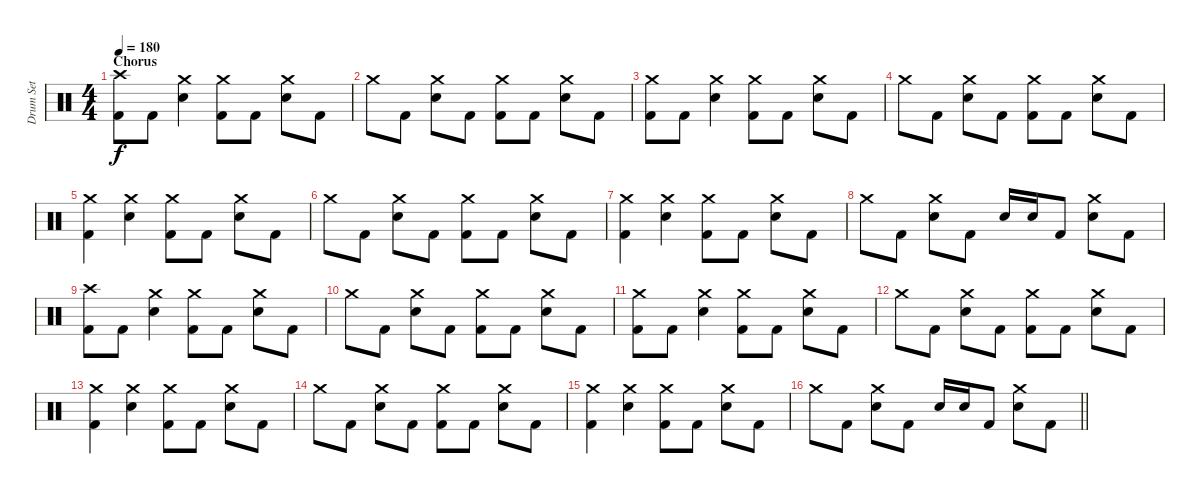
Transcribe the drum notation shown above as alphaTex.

\track ("Drum Set" "Drum Set") {instrument percussion}
\staff {score}
\articulation defaults
\ts (4 4)
\section ("" "Chorus")
\tempo 180
\clef neutral
\ks c
("Crash high (hit)" "Kick (hit) 2").8{dy f} "Kick (hit) 2".8 ("Crash medium (hit)" "Electric Snare (hit)").4 ("Crash medium (hit)" "Kick (hit) 2").8 "Kick (hit) 2".8 ("Crash medium (hit)" "Electric Snare (hit)").8 "Kick (hit) 2".8 |
"Crash medium (hit)".8 "Kick (hit) 2".8 ("Crash medium (hit)" "Electric Snare (hit)").8 "Kick (hit) 2".8 ("Crash medium (hit)" "Kick (hit) 2").8 "Kick (hit) 2".8 ("Crash medium (hit)" "Electric Snare (hit)").8 "Kick (hit) 2".8 |
("Crash medium (hit)" "Kick (hit) 2").8 "Kick (hit) 2".8 ("Crash medium (hit)" "Electric Snare (hit)").4 ("Crash medium (hit)" "Kick (hit) 2").8 "Kick (hit) 2".8 ("Crash medium (hit)" "Electric Snare (hit)").8 "Kick (hit) 2".8 |
"Crash medium (hit)".8 "Kick (hit) 2".8 ("Crash medium (hit)" "Electric Snare (hit)").8 "Kick (hit) 2".8 ("Crash medium (hit)" "Kick (hit) 2").8 "Kick (hit) 2".8 ("Crash medium (hit)" "Electric Snare (hit)").8 "Kick (hit) 2".8 |
("Crash medium (hit)" "Kick (hit) 2").4 ("Crash medium (hit)" "Electric Snare (hit)").4 ("Crash medium (hit)" "Kick (hit) 2").8 "Kick (hit) 2".8 ("Crash medium (hit)" "Electric Snare (hit)").8 "Kick (hit) 2".8 |
"Crash medium (hit)".8 "Kick (hit) 2".8 ("Crash medium (hit)" "Electric Snare (hit)").8 "Kick (hit) 2".8 ("Crash medium (hit)" "Kick (hit) 2").8 "Kick (hit) 2".8 ("Crash medium (hit)" "Electric Snare (hit)").8 "Kick (hit) 2".8 |
("Crash medium (hit)" "Kick (hit) 2").4 ("Crash medium (hit)" "Electric Snare (hit)").4 ("Crash medium (hit)" "Kick (hit) 2").8 "Kick (hit) 2".8 ("Crash medium (hit)" "Electric Snare (hit)").8 "Kick (hit) 2".8 |
"Crash medium (hit)".8 "Kick (hit) 2".8 ("Crash medium (hit)" "Electric Snare (hit)").8 "Kick (hit) 2".8 "Electric Snare (hit)".16 "Electric Snare (hit)".16 "Kick (hit) 2".8 ("Crash medium (hit)" "Electric Snare (hit)").8 "Kick (hit) 2".8 |
("Crash high (hit)" "Kick (hit) 2").8 "Kick (hit) 2".8 ("Crash medium (hit)" "Electric Snare (hit)").4 ("Crash medium (hit)" "Kick (hit) 2").8 "Kick (hit) 2".8 ("Crash medium (hit)" "Electric Snare (hit)").8 "Kick (hit) 2".8 |
"Crash medium (hit)".8 "Kick (hit) 2".8 ("Crash medium (hit)" "Electric Snare (hit)").8 "Kick (hit) 2".8 ("Crash medium (hit)" "Kick (hit) 2").8 "Kick (hit) 2".8 ("Crash medium (hit)" "Electric Snare (hit)").8 "Kick (hit) 2".8 |
("Crash medium (hit)" "Kick (hit) 2").8 "Kick (hit) 2".8 ("Crash medium (hit)" "Electric Snare (hit)").4 ("Crash medium (hit)" "Kick (hit) 2").8 "Kick (hit) 2".8 ("Crash medium (hit)" "Electric Snare (hit)").8 "Kick (hit) 2".8 |
"Crash medium (hit)".8 "Kick (hit) 2".8 ("Crash medium (hit)" "Electric Snare (hit)").8 "Kick (hit) 2".8 ("Crash medium (hit)" "Kick (hit) 2").8 "Kick (hit) 2".8 ("Crash medium (hit)" "Electric Snare (hit)").8 "Kick (hit) 2".8 |
("Crash medium (hit)" "Kick (hit) 2").4 ("Crash medium (hit)" "Electric Snare (hit)").4 ("Crash medium (hit)" "Kick (hit) 2").8 "Kick (hit) 2".8 ("Crash medium (hit)" "Electric Snare (hit)").8 "Kick (hit) 2".8 |
"Crash medium (hit)".8 "Kick (hit) 2".8 ("Crash medium (hit)" "Electric Snare (hit)").8 "Kick (hit) 2".8 ("Crash medium (hit)" "Kick (hit) 2").8 "Kick (hit) 2".8 ("Crash medium (hit)" "Electric Snare (hit)").8 "Kick (hit) 2".8 |
("Crash medium (hit)" "Kick (hit) 2").4 ("Crash medium (hit)" "Electric Snare (hit)").4 ("Crash medium (hit)" "Kick (hit) 2").8 "Kick (hit) 2".8 ("Crash medium (hit)" "Electric Snare (hit)").8 "Kick (hit) 2".8 |
\barLineRight lightlight "Crash medium (hit)".8 "Kick (hit) 2".8
("Crash medium (hit)" "Electric Snare (hit)").8 "Kick (hit) 2".8 "Electric Snare (hit)".16 "Electric Snare (hit)".16 "Kick (hit) 2".8 ("Crash medium (hit)" "Electric Snare (hit)").8 "Kick (hit) 2".8
